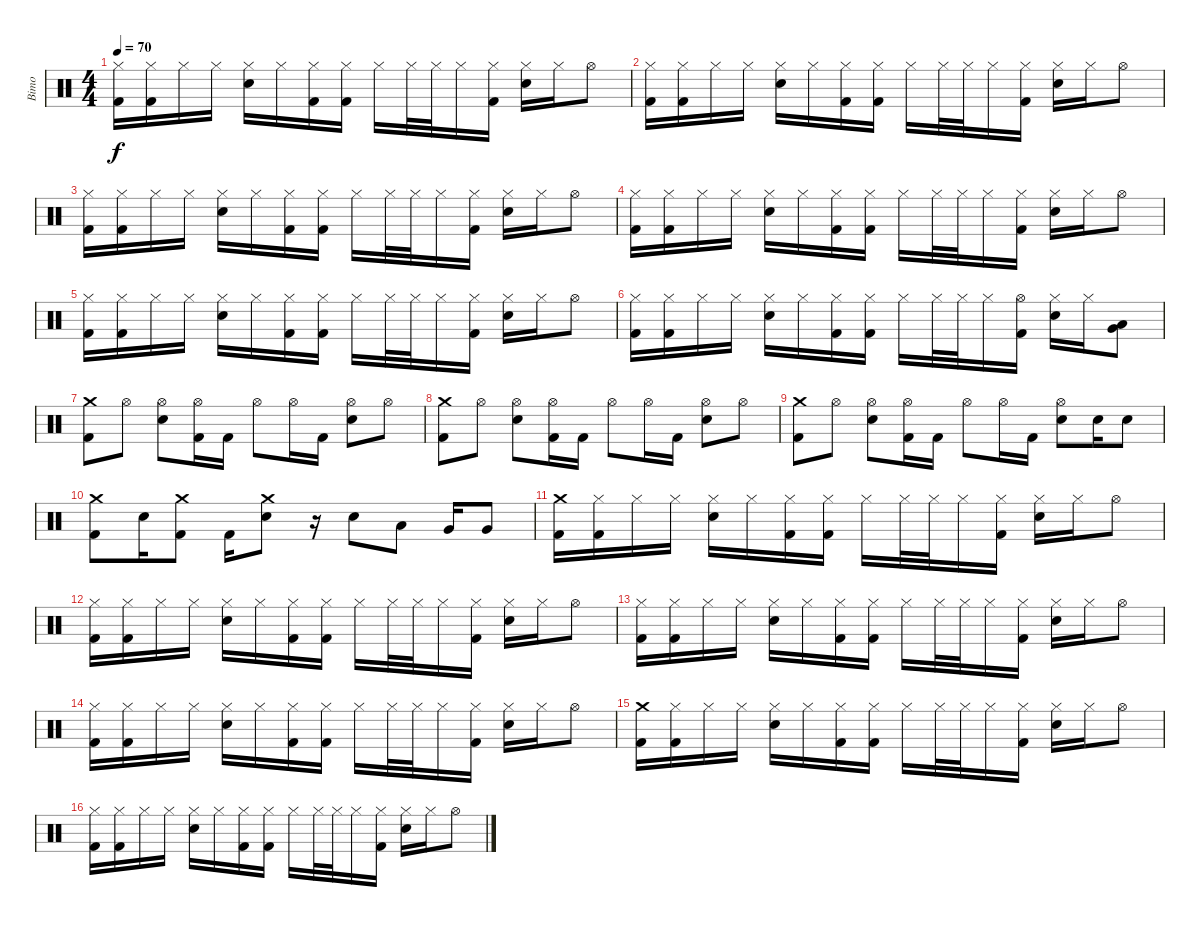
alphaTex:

\track ("Bimo" "Bimo") {instrument percussion}
\staff {score}
\articulation defaults
\ts (4 4)
\tempo 70
\clef neutral
\ks c
("Hi-Hat (closed)" "Kick (hit) 2").16{dy f} ("Hi-Hat (closed)" "Kick (hit) 2").16 "Hi-Hat (closed)".16 "Hi-Hat (closed)".16 ("Hi-Hat (closed)" "Snare (hit) 2").16 "Hi-Hat (closed)".16 ("Hi-Hat (closed)" "Kick (hit) 2").16 ("Hi-Hat (closed)" "Kick (hit) 2").16 "Hi-Hat (closed)".16 "Hi-Hat (closed)".32 "Hi-Hat (closed)".32 "Hi-Hat (closed)".16 ("Hi-Hat (closed)" "Kick (hit) 2").16 ("Hi-Hat (closed)" "Snare (hit) 2").16 "Hi-Hat (closed)".16 "Hi-Hat (open)".8 |
("Hi-Hat (closed)" "Kick (hit) 2").16 ("Hi-Hat (closed)" "Kick (hit) 2").16 "Hi-Hat (closed)".16 "Hi-Hat (closed)".16 ("Hi-Hat (closed)" "Snare (hit) 2").16 "Hi-Hat (closed)".16 ("Hi-Hat (closed)" "Kick (hit) 2").16 ("Hi-Hat (closed)" "Kick (hit) 2").16 "Hi-Hat (closed)".16 "Hi-Hat (closed)".32 "Hi-Hat (closed)".32 "Hi-Hat (closed)".16 ("Hi-Hat (closed)" "Kick (hit) 2").16 ("Hi-Hat (closed)" "Snare (hit) 2").16 "Hi-Hat (closed)".16 "Hi-Hat (open)".8 |
("Hi-Hat (closed)" "Kick (hit) 2").16 ("Hi-Hat (closed)" "Kick (hit) 2").16 "Hi-Hat (closed)".16 "Hi-Hat (closed)".16 ("Hi-Hat (closed)" "Snare (hit) 2").16 "Hi-Hat (closed)".16 ("Hi-Hat (closed)" "Kick (hit) 2").16 ("Hi-Hat (closed)" "Kick (hit) 2").16 "Hi-Hat (closed)".16 "Hi-Hat (closed)".32 "Hi-Hat (closed)".32 "Hi-Hat (closed)".16 ("Hi-Hat (closed)" "Kick (hit) 2").16 ("Hi-Hat (closed)" "Snare (hit) 2").16 "Hi-Hat (closed)".16 "Hi-Hat (open)".8 |
("Hi-Hat (closed)" "Kick (hit) 2").16 ("Hi-Hat (closed)" "Kick (hit) 2").16 "Hi-Hat (closed)".16 "Hi-Hat (closed)".16 ("Hi-Hat (closed)" "Snare (hit) 2").16 "Hi-Hat (closed)".16 ("Hi-Hat (closed)" "Kick (hit) 2").16 ("Hi-Hat (closed)" "Kick (hit) 2").16 "Hi-Hat (closed)".16 "Hi-Hat (closed)".32 "Hi-Hat (closed)".32 "Hi-Hat (closed)".16 ("Hi-Hat (closed)" "Kick (hit) 2").16 ("Hi-Hat (closed)" "Snare (hit) 2").16 "Hi-Hat (closed)".16 "Hi-Hat (open)".8 |
("Hi-Hat (closed)" "Kick (hit) 2").16 ("Hi-Hat (closed)" "Kick (hit) 2").16 "Hi-Hat (closed)".16 "Hi-Hat (closed)".16 ("Hi-Hat (closed)" "Snare (hit) 2").16 "Hi-Hat (closed)".16 ("Hi-Hat (closed)" "Kick (hit) 2").16 ("Hi-Hat (closed)" "Kick (hit) 2").16 "Hi-Hat (closed)".16 "Hi-Hat (closed)".32 "Hi-Hat (closed)".32 "Hi-Hat (closed)".16 ("Hi-Hat (closed)" "Kick (hit) 2").16 ("Hi-Hat (closed)" "Snare (hit) 2").16 "Hi-Hat (closed)".16 "Hi-Hat (open)".8 |
("Hi-Hat (closed)" "Kick (hit) 2").16 ("Hi-Hat (closed)" "Kick (hit) 2").16 "Hi-Hat (closed)".16 "Hi-Hat (closed)".16 ("Hi-Hat (closed)" "Snare (hit) 2").16 "Hi-Hat (closed)".16 ("Hi-Hat (closed)" "Kick (hit) 2").16 ("Hi-Hat (closed)" "Kick (hit) 2").16 "Hi-Hat (closed)".16 "Hi-Hat (closed)".32 "Hi-Hat (closed)".32 "Hi-Hat (closed)".16 ("Hi-Hat (open)" "Kick (hit) 2").16 ("Hi-Hat (closed)" "Snare (hit) 2").16 "Hi-Hat (closed)".16 ("Low Floor Tom (hit)" "Very Low Tom (hit)").8 |
("Crash medium (hit)" "Kick (hit) 2").8 "Hi-Hat (open)".8 ("Hi-Hat (open)" "Snare (hit) 2").8 ("Hi-Hat (open)" "Kick (hit) 2").16 "Kick (hit) 2".16 "Hi-Hat (open)".8 "Hi-Hat (open)".16 "Kick (hit) 2".16 ("Hi-Hat (open)" "Snare (hit) 2").8 "Hi-Hat (open)".8 |
("Crash medium (hit)" "Kick (hit) 2").8 "Hi-Hat (open)".8 ("Hi-Hat (open)" "Snare (hit) 2").8 ("Hi-Hat (open)" "Kick (hit) 2").16 "Kick (hit) 2".16 "Hi-Hat (open)".8 "Hi-Hat (open)".16 "Kick (hit) 2".16 ("Hi-Hat (open)" "Snare (hit) 2").8 "Hi-Hat (open)".8 |
("Crash medium (hit)" "Kick (hit) 2").8 "Hi-Hat (open)".8 ("Hi-Hat (open)" "Snare (hit) 2").8 ("Hi-Hat (open)" "Kick (hit) 2").16 "Kick (hit) 2".16 "Hi-Hat (open)".8 "Hi-Hat (open)".16 "Kick (hit) 2".16 ("Hi-Hat (open)" "Snare (hit) 2").8 "Snare (hit) 2".16 "Snare (hit) 2".8 |
("Crash medium (hit)" "Kick (hit) 2").8 "Snare (hit) 2".16 ("Crash medium (hit)" "Kick (hit) 2").8 "Kick (hit) 2".16 ("Crash medium (hit)" "Snare (hit) 2").8 r.16 "Snare (hit) 2".8 "Low Tom (hit)".8 "Very Low Tom (hit)".16 "Very Low Tom (hit)".8 |
("Crash medium (hit)" "Kick (hit) 2").16 ("Hi-Hat (closed)" "Kick (hit) 2").16 "Hi-Hat (closed)".16 "Hi-Hat (closed)".16 ("Hi-Hat (closed)" "Snare (hit) 2").16 "Hi-Hat (closed)".16 ("Hi-Hat (closed)" "Kick (hit) 2").16 ("Hi-Hat (closed)" "Kick (hit) 2").16 "Hi-Hat (closed)".16 "Hi-Hat (closed)".32 "Hi-Hat (closed)".32 "Hi-Hat (closed)".16 ("Hi-Hat (closed)" "Kick (hit) 2").16 ("Hi-Hat (closed)" "Snare (hit) 2").16 "Hi-Hat (closed)".16 "Hi-Hat (open)".8 |
("Hi-Hat (closed)" "Kick (hit) 2").16 ("Hi-Hat (closed)" "Kick (hit) 2").16 "Hi-Hat (closed)".16 "Hi-Hat (closed)".16 ("Hi-Hat (closed)" "Snare (hit) 2").16 "Hi-Hat (closed)".16 ("Hi-Hat (closed)" "Kick (hit) 2").16 ("Hi-Hat (closed)" "Kick (hit) 2").16 "Hi-Hat (closed)".16 "Hi-Hat (closed)".32 "Hi-Hat (closed)".32 "Hi-Hat (closed)".16 ("Hi-Hat (closed)" "Kick (hit) 2").16 ("Hi-Hat (closed)" "Snare (hit) 2").16 "Hi-Hat (closed)".16 "Hi-Hat (open)".8 |
("Hi-Hat (closed)" "Kick (hit) 2").16 ("Hi-Hat (closed)" "Kick (hit) 2").16 "Hi-Hat (closed)".16 "Hi-Hat (closed)".16 ("Hi-Hat (closed)" "Snare (hit) 2").16 "Hi-Hat (closed)".16 ("Hi-Hat (closed)" "Kick (hit) 2").16 ("Hi-Hat (closed)" "Kick (hit) 2").16 "Hi-Hat (closed)".16 "Hi-Hat (closed)".32 "Hi-Hat (closed)".32 "Hi-Hat (closed)".16 ("Hi-Hat (closed)" "Kick (hit) 2").16 ("Hi-Hat (closed)" "Snare (hit) 2").16 "Hi-Hat (closed)".16 "Hi-Hat (open)".8 |
("Hi-Hat (closed)" "Kick (hit) 2").16 ("Hi-Hat (closed)" "Kick (hit) 2").16 "Hi-Hat (closed)".16 "Hi-Hat (closed)".16 ("Hi-Hat (closed)" "Snare (hit) 2").16 "Hi-Hat (closed)".16 ("Hi-Hat (closed)" "Kick (hit) 2").16 ("Hi-Hat (closed)" "Kick (hit) 2").16 "Hi-Hat (closed)".16 "Hi-Hat (closed)".32 "Hi-Hat (closed)".32 "Hi-Hat (closed)".16 ("Hi-Hat (closed)" "Kick (hit) 2").16 ("Hi-Hat (closed)" "Snare (hit) 2").16 "Hi-Hat (closed)".16 "Hi-Hat (open)".8 |
("Crash medium (hit)" "Kick (hit) 2").16 ("Hi-Hat (closed)" "Kick (hit) 2").16 "Hi-Hat (closed)".16 "Hi-Hat (closed)".16 ("Hi-Hat (closed)" "Snare (hit) 2").16 "Hi-Hat (closed)".16 ("Hi-Hat (closed)" "Kick (hit) 2").16 ("Hi-Hat (closed)" "Kick (hit) 2").16 "Hi-Hat (closed)".16 "Hi-Hat (closed)".32 "Hi-Hat (closed)".32 "Hi-Hat (closed)".16 ("Hi-Hat (closed)" "Kick (hit) 2").16 ("Hi-Hat (closed)" "Snare (hit) 2").16 "Hi-Hat (closed)".16 "Hi-Hat (open)".8 |
("Hi-Hat (closed)" "Kick (hit) 2").16 ("Hi-Hat (closed)" "Kick (hit) 2").16 "Hi-Hat (closed)".16 "Hi-Hat (closed)".16 ("Hi-Hat (closed)" "Snare (hit) 2").16 "Hi-Hat (closed)".16 ("Hi-Hat (closed)" "Kick (hit) 2").16 ("Hi-Hat (closed)" "Kick (hit) 2").16 "Hi-Hat (closed)".16 "Hi-Hat (closed)".32 "Hi-Hat (closed)".32 "Hi-Hat (closed)".16 ("Hi-Hat (closed)" "Kick (hit) 2").16 ("Hi-Hat (closed)" "Snare (hit) 2").16 "Hi-Hat (closed)".16 "Hi-Hat (open)".8
